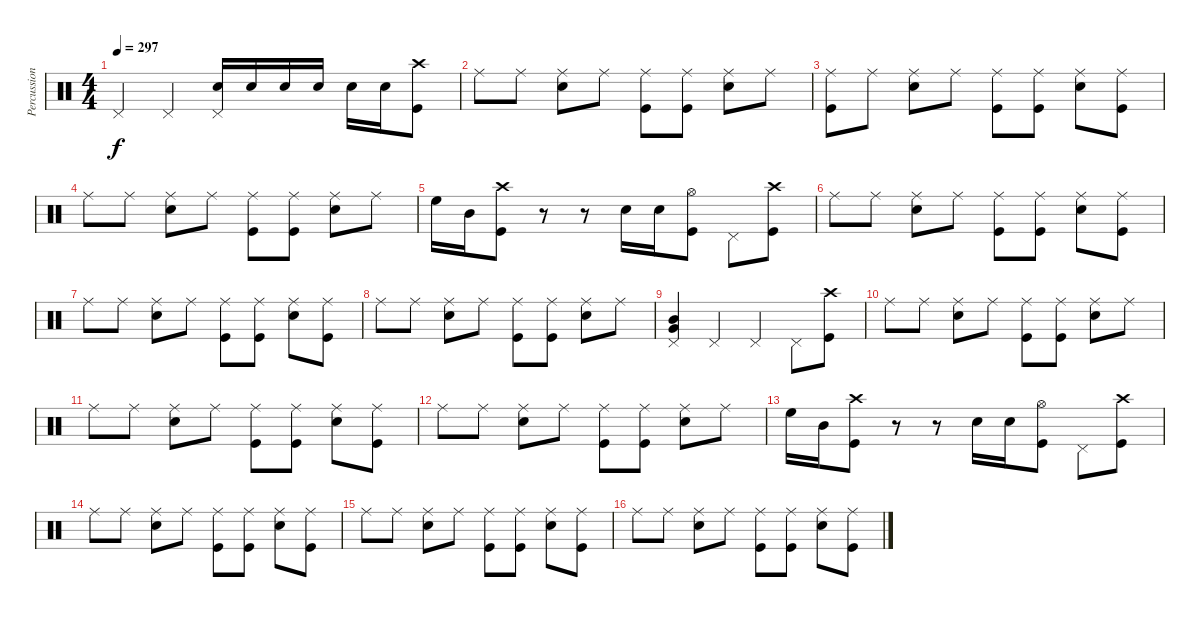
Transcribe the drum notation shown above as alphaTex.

\track ("Percussioni" "Percussion") {instrument percussion}
\staff {score}
\articulation defaults
\ts (4 4)
\tempo 297
\clef neutral
\ks c "Pedal Hi-Hat (hit)".4{dy f} "Pedal Hi-Hat (hit)".4
("Pedal Hi-Hat (hit)" "Snare (hit) 2").16 "Snare (hit) 2".16 "Snare (hit) 2".16 "Snare (hit) 2".16 "Snare (hit) 2".16 "Snare (hit) 2".16 ("Kick (hit)" "Crash high (hit)").8 |
"Ride (middle)".8 "Ride (middle)".8 ("Ride (middle)" "Snare (hit) 2").8 "Ride (middle)".8 ("Ride (middle)" "Kick (hit)").8 ("Ride (middle)" "Kick (hit)").8 ("Ride (middle)" "Snare (hit) 2").8 "Ride (middle)".8 |
("Ride (middle)" "Kick (hit)").8 "Ride (middle)".8 ("Ride (middle)" "Snare (hit) 2").8 "Ride (middle)".8 ("Ride (middle)" "Kick (hit)").8 ("Ride (middle)" "Kick (hit)").8 ("Ride (middle)" "Snare (hit) 2").8 ("Ride (middle)" "Kick (hit)").8 |
"Ride (middle)".8 "Ride (middle)".8 ("Ride (middle)" "Snare (hit) 2").8 "Ride (middle)".8 ("Ride (middle)" "Kick (hit)").8 ("Ride (middle)" "Kick (hit)").8 ("Ride (middle)" "Snare (hit) 2").8 "Ride (middle)".8 |
"High Floor Tom (hit)".16 "Mid Tom (hit)".16 ("Kick (hit)" "Crash high (hit)").8 r.8 r.8 "Snare (hit) 2".16 "Snare (hit) 2".16 ("Hi-Hat (open)" "Kick (hit)").8 "Pedal Hi-Hat (hit)".8 ("Crash high (hit)" "Kick (hit)").8 |
"Ride (middle)".8 "Ride (middle)".8 ("Ride (middle)" "Snare (hit) 2").8 "Ride (middle)".8 ("Ride (middle)" "Kick (hit)").8 ("Ride (middle)" "Kick (hit)").8 ("Ride (middle)" "Snare (hit) 2").8 ("Ride (middle)" "Kick (hit)").8 |
"Ride (middle)".8 "Ride (middle)".8 ("Ride (middle)" "Snare (hit) 2").8 "Ride (middle)".8 ("Ride (middle)" "Kick (hit)").8 ("Ride (middle)" "Kick (hit)").8 ("Ride (middle)" "Snare (hit) 2").8 ("Ride (middle)" "Kick (hit)").8 |
"Ride (middle)".8 "Ride (middle)".8 ("Ride (middle)" "Snare (hit) 2").8 "Ride (middle)".8 ("Ride (middle)" "Kick (hit)").8 ("Ride (middle)" "Kick (hit)").8 ("Ride (middle)" "Snare (hit) 2").8 "Ride (middle)".8 |
("Very Low Tom (hit)" "Mid Tom (hit)" "Pedal Hi-Hat (hit)").4 "Pedal Hi-Hat (hit)".4 "Pedal Hi-Hat (hit)".4 "Pedal Hi-Hat (hit)".8 ("Kick (hit)" "Crash high (hit)").8 |
"Ride (middle)".8 "Ride (middle)".8 ("Ride (middle)" "Snare (hit) 2").8 "Ride (middle)".8 ("Ride (middle)" "Kick (hit)").8 ("Ride (middle)" "Kick (hit)").8 ("Ride (middle)" "Snare (hit) 2").8 "Ride (middle)".8 |
"Ride (middle)".8 "Ride (middle)".8 ("Ride (middle)" "Snare (hit) 2").8 "Ride (middle)".8 ("Ride (middle)" "Kick (hit)").8 ("Ride (middle)" "Kick (hit)").8 ("Ride (middle)" "Snare (hit) 2").8 ("Ride (middle)" "Kick (hit)").8 |
"Ride (middle)".8 "Ride (middle)".8 ("Ride (middle)" "Snare (hit) 2").8 "Ride (middle)".8 ("Ride (middle)" "Kick (hit)").8 ("Ride (middle)" "Kick (hit)").8 ("Ride (middle)" "Snare (hit) 2").8 "Ride (middle)".8 |
"High Floor Tom (hit)".16 "Mid Tom (hit)".16 ("Kick (hit)" "Crash high (hit)").8 r.8 r.8 "Snare (hit) 2".16 "Snare (hit) 2".16 ("Hi-Hat (open)" "Kick (hit)").8 "Pedal Hi-Hat (hit)".8 ("Crash high (hit)" "Kick (hit)").8 |
"Ride (middle)".8 "Ride (middle)".8 ("Ride (middle)" "Snare (hit) 2").8 "Ride (middle)".8 ("Ride (middle)" "Kick (hit)").8 ("Ride (middle)" "Kick (hit)").8 ("Ride (middle)" "Snare (hit) 2").8 ("Ride (middle)" "Kick (hit)").8 |
"Ride (middle)".8 "Ride (middle)".8 ("Ride (middle)" "Snare (hit) 2").8 "Ride (middle)".8 ("Ride (middle)" "Kick (hit)").8 ("Ride (middle)" "Kick (hit)").8 ("Ride (middle)" "Snare (hit) 2").8 ("Ride (middle)" "Kick (hit)").8 |
"Ride (middle)".8 "Ride (middle)".8 ("Ride (middle)" "Snare (hit) 2").8 "Ride (middle)".8 ("Ride (middle)" "Kick (hit)").8 ("Ride (middle)" "Kick (hit)").8 ("Ride (middle)" "Snare (hit) 2").8 ("Ride (middle)" "Kick (hit)").8
